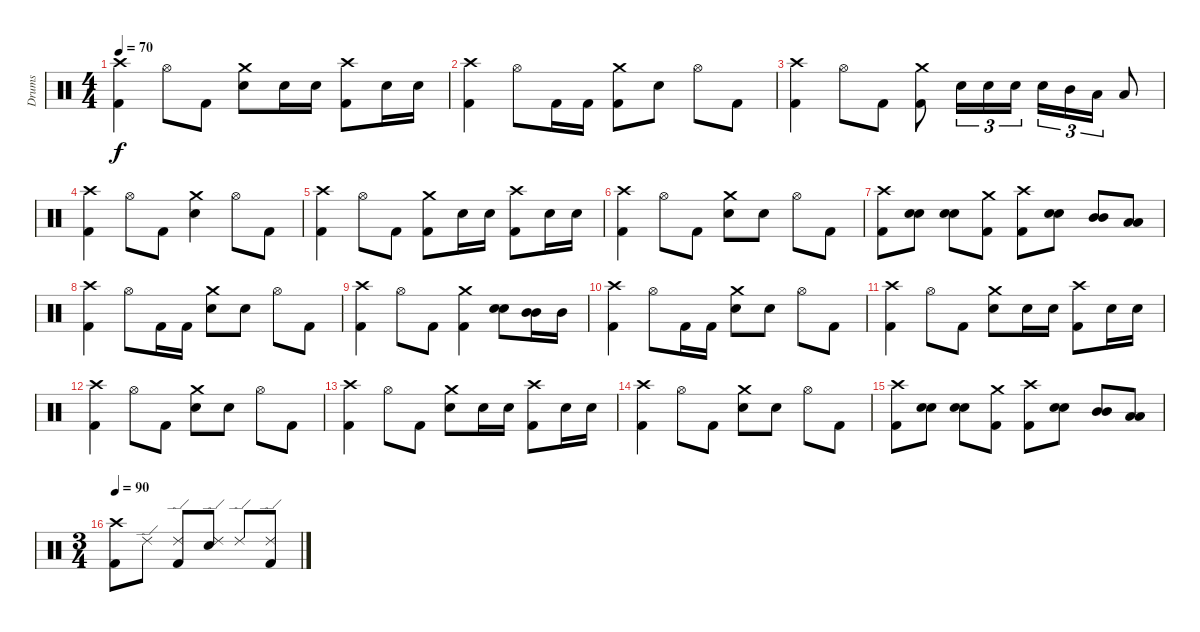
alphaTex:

\track ("Drums" "Drums") {instrument percussion}
\staff {score}
\articulation defaults
\ts (4 4)
\tempo 70
\clef neutral
\ks c
("Crash high (hit)" "Kick (hit) 2").4{dy f} "Hi-Hat (open)".8 "Kick (hit) 2".8 ("Crash medium (hit)" "Electric Snare (hit)").8 "Electric Snare (hit)".16 "Electric Snare (hit)".16 ("Crash high (hit)" "Kick (hit) 2").8 "Electric Snare (hit)".16 "Electric Snare (hit)".16 |
("Crash high (hit)" "Kick (hit) 2").4 "Hi-Hat (open)".8 "Kick (hit) 2".16 "Kick (hit) 2".16 ("Crash medium (hit)" "Kick (hit) 2").8 "Electric Snare (hit)".8 "Hi-Hat (open)".8 "Kick (hit) 2".8 |
("Crash high (hit)" "Kick (hit) 2").4 "Hi-Hat (open)".8 "Kick (hit) 2".8 ("Crash medium (hit)" "Kick (hit) 2").8 "Electric Snare (hit)".16{tu (3 2)} "Electric Snare (hit)".16{tu (3 2)} "Electric Snare (hit)".16{tu (3 2)} "Electric Snare (hit)".16{tu (3 2)} "Mid Tom (hit)".16{tu (3 2)} "Low Tom (hit)".16{tu (3 2)} "Low Tom (hit)".8 |
("Crash high (hit)" "Kick (hit) 2").4 "Hi-Hat (open)".8 "Kick (hit) 2".8 ("Crash medium (hit)" "Electric Snare (hit)").4 "Hi-Hat (open)".8 "Kick (hit) 2".8 |
("Crash high (hit)" "Kick (hit) 2").4 "Hi-Hat (open)".8 "Kick (hit) 2".8 ("Crash medium (hit)" "Kick (hit) 2").8 "Electric Snare (hit)".16 "Electric Snare (hit)".16 ("Crash high (hit)" "Kick (hit) 2").8 "Electric Snare (hit)".16 "Electric Snare (hit)".16 |
("Crash high (hit)" "Kick (hit) 2").4 "Hi-Hat (open)".8 "Kick (hit) 2".8 ("Crash medium (hit)" "Electric Snare (hit)").8 "Electric Snare (hit)".8 "Hi-Hat (open)".8 "Kick (hit) 2".8 |
("Crash high (hit)" "Kick (hit) 2").8 ("Electric Snare (hit)" "Electric Snare (hit)").8{bu 60} ("Electric Snare (hit)" "Electric Snare (hit)").8{bu 60} ("Crash medium (hit)" "Kick (hit) 2").8 ("Crash high (hit)" "Kick (hit) 2").8 ("Electric Snare (hit)" "Electric Snare (hit)").8{bu 60} ("Mid Tom (hit)" "Mid Tom (hit)").8{bu 60} ("Low Tom (hit)" "Low Tom (hit)").8{bu 60} |
("Crash high (hit)" "Kick (hit) 2").4 "Hi-Hat (open)".8 "Kick (hit) 2".16 "Kick (hit) 2".16 ("Crash medium (hit)" "Electric Snare (hit)").8 "Electric Snare (hit)".8 "Hi-Hat (open)".8 "Kick (hit) 2".8 |
("Crash high (hit)" "Kick (hit) 2").4 "Hi-Hat (open)".8 "Kick (hit) 2".8 ("Crash medium (hit)" "Kick (hit) 2").4 ("Electric Snare (hit)" "Electric Snare (hit)").8{bu 60} ("Mid Tom (hit)" "Mid Tom (hit)").16{bu 60} "Mid Tom (hit)".16 |
("Crash high (hit)" "Kick (hit) 2").4 "Hi-Hat (open)".8 "Kick (hit) 2".16 "Kick (hit) 2".16 ("Crash medium (hit)" "Electric Snare (hit)").8 "Electric Snare (hit)".8 "Hi-Hat (open)".8 "Kick (hit) 2".8 |
("Crash high (hit)" "Kick (hit) 2").4 "Hi-Hat (open)".8 "Kick (hit) 2".8 ("Crash medium (hit)" "Electric Snare (hit)").8 "Electric Snare (hit)".16 "Electric Snare (hit)".16 ("Crash high (hit)" "Kick (hit) 2").8 "Electric Snare (hit)".16 "Electric Snare (hit)".16 |
("Crash high (hit)" "Kick (hit) 2").4 "Hi-Hat (open)".8 "Kick (hit) 2".8 ("Crash medium (hit)" "Electric Snare (hit)").8 "Electric Snare (hit)".8 "Hi-Hat (open)".8 "Kick (hit) 2".8 |
("Crash high (hit)" "Kick (hit) 2").4 "Hi-Hat (open)".8 "Kick (hit) 2".8 ("Crash medium (hit)" "Electric Snare (hit)").8 "Electric Snare (hit)".16 "Electric Snare (hit)".16 ("Crash high (hit)" "Kick (hit) 2").8 "Electric Snare (hit)".16 "Electric Snare (hit)".16 |
("Crash high (hit)" "Kick (hit) 2").4 "Hi-Hat (open)".8 "Kick (hit) 2".8 ("Crash medium (hit)" "Electric Snare (hit)").8 "Electric Snare (hit)".8 "Hi-Hat (open)".8 "Kick (hit) 2".8 |
("Crash high (hit)" "Kick (hit) 2").8 ("Electric Snare (hit)" "Electric Snare (hit)").8{bu 60} ("Electric Snare (hit)" "Electric Snare (hit)").8{bu 60} ("Crash medium (hit)" "Kick (hit) 2").8 ("Crash high (hit)" "Kick (hit) 2").8 ("Electric Snare (hit)" "Electric Snare (hit)").8{bu 60} ("Mid Tom (hit)" "Mid Tom (hit)").8{bu 60} ("Low Tom (hit)" "Low Tom (hit)").8{bu 60} |
\ts (3 4)
\tempo 90
("Crash high (hit)" "Kick (hit) 2").8 "Ride (edge) 2".8 ("Ride (edge) 2" "Kick (hit) 2").8 ("Ride (edge) 2" "Electric Snare (hit)").8 "Ride (edge) 2".8 ("Ride (edge) 2" "Kick (hit) 2").8
